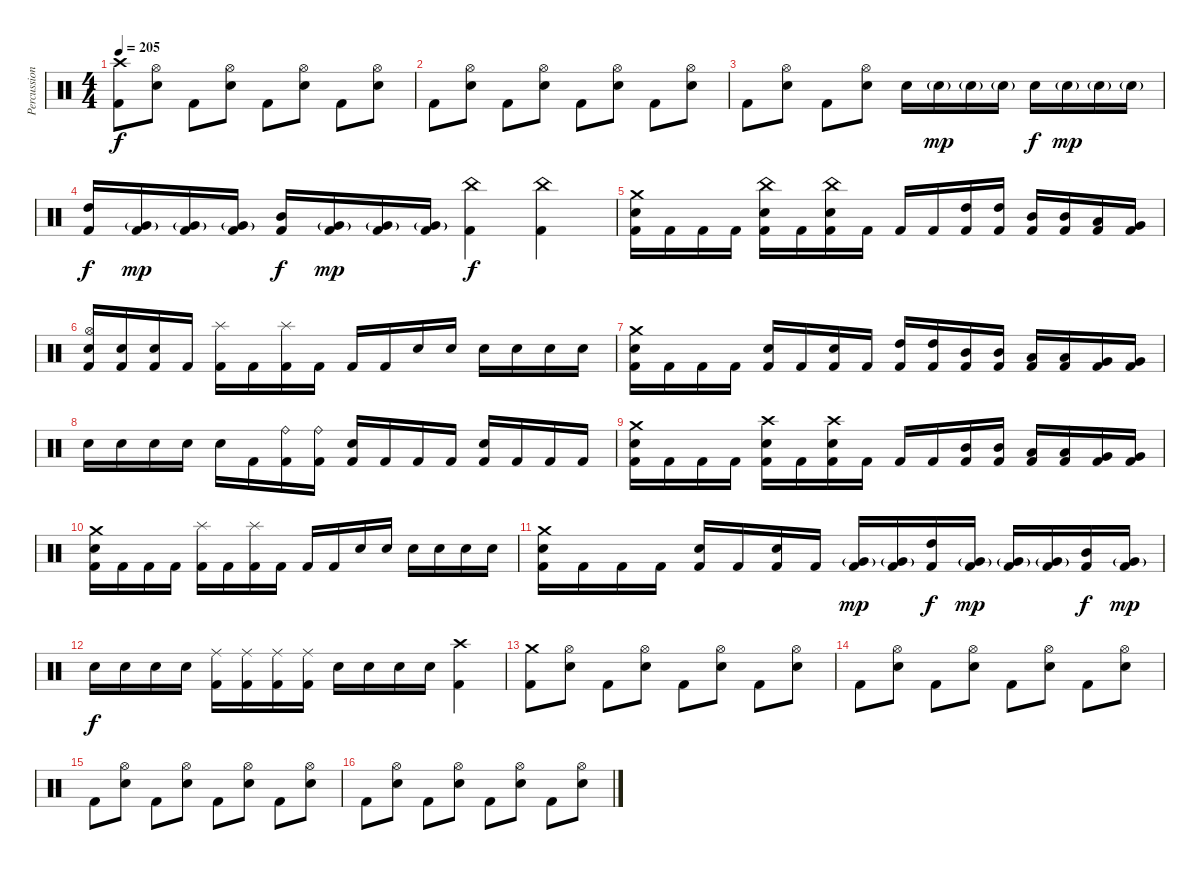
\track ("Percussions" "Percussion") {instrument percussion}
\staff {score}
\articulation defaults
\ts (4 4)
\tempo 205
\clef neutral
\ks c
("Crash high (hit)" "Kick (hit) 2").8{dy f} ("Hi-Hat (open)" "Electric Snare (hit)").8 "Kick (hit) 2".8 ("Hi-Hat (open)" "Electric Snare (hit)").8 "Kick (hit) 2".8 ("Hi-Hat (open)" "Electric Snare (hit)").8 "Kick (hit) 2".8 ("Hi-Hat (open)" "Electric Snare (hit)").8 |
"Kick (hit) 2".8 ("Hi-Hat (open)" "Electric Snare (hit)").8 "Kick (hit) 2".8 ("Hi-Hat (open)" "Electric Snare (hit)").8 "Kick (hit) 2".8 ("Hi-Hat (open)" "Electric Snare (hit)").8 "Kick (hit) 2".8 ("Hi-Hat (open)" "Electric Snare (hit)").8 |
"Kick (hit) 2".8 ("Hi-Hat (open)" "Electric Snare (hit)").8 "Kick (hit) 2".8 ("Hi-Hat (open)" "Electric Snare (hit)").8 "Electric Snare (hit)".16 "Electric Snare (hit)"{g}.16{dy mp} "Electric Snare (hit)"{g}.16 "Electric Snare (hit)"{g}.16 "Electric Snare (hit)".16{dy f} "Electric Snare (hit)"{g}.16{dy mp} "Electric Snare (hit)"{g}.16 "Electric Snare (hit)"{g}.16 |
("High Tom (hit)" "Kick (hit) 2").16{dy f} ("Very Low Tom (hit)"{g} "Kick (hit) 2").16{dy mp} ("Very Low Tom (hit)"{g} "Kick (hit) 2").16 ("Very Low Tom (hit)"{g} "Kick (hit) 2").16 ("Mid Tom (hit)" "Kick (hit) 2").16{dy f} ("Very Low Tom (hit)"{g} "Kick (hit) 2").16{dy mp} ("Very Low Tom (hit)"{g} "Kick (hit) 2").16 ("Very Low Tom (hit)"{g} "Kick (hit) 2").16 ("China (hit)" "Kick (hit) 2").4{dy f} ("China (hit)" "Kick (hit) 2").4 |
("Crash medium (hit)" "Electric Snare (hit)" "Kick (hit) 2").16 "Kick (hit) 2".16 "Kick (hit) 2".16 "Kick (hit) 2".16 ("China (hit)" "Electric Snare (hit)" "Kick (hit) 2").16 "Kick (hit) 2".16 ("China (hit)" "Electric Snare (hit)" "Kick (hit) 2").16 "Kick (hit) 2".16 "Kick (hit) 2".16 "Kick (hit) 2".16 ("High Tom (hit)" "Kick (hit) 2").16 ("High Tom (hit)" "Kick (hit) 2").16 ("Mid Tom (hit)" "Kick (hit) 2").16 ("Mid Tom (hit)" "Kick (hit) 2").16 ("Low Tom (hit)" "Kick (hit) 2").16 ("Very Low Tom (hit)" "Kick (hit) 2").16 |
("Hi-Hat (open)" "Electric Snare (hit)" "Kick (hit) 2").16 ("Electric Snare (hit)" "Kick (hit) 2").16 ("Electric Snare (hit)" "Kick (hit) 2").16 "Kick (hit) 2".16 ("Splash (hit)" "Kick (hit) 2").16 "Kick (hit) 2".16 ("Splash (hit)" "Kick (hit) 2").16 "Kick (hit) 2".16 "Kick (hit) 2".16 "Kick (hit) 2".16 "Electric Snare (hit)".16 "Electric Snare (hit)".16 "Electric Snare (hit)".16 "Electric Snare (hit)".16 "Electric Snare (hit)".16 "Electric Snare (hit)".16 |
("Crash medium (hit)" "Electric Snare (hit)" "Kick (hit) 2").16 "Kick (hit) 2".16 "Kick (hit) 2".16 "Kick (hit) 2".16 ("Electric Snare (hit)" "Kick (hit) 2").16 "Kick (hit) 2".16 ("Electric Snare (hit)" "Kick (hit) 2").16 "Kick (hit) 2".16 ("High Tom (hit)" "Kick (hit) 2").16 ("High Tom (hit)" "Kick (hit) 2").16 ("Mid Tom (hit)" "Kick (hit) 2").16 ("Mid Tom (hit)" "Kick (hit) 2").16 ("Low Tom (hit)" "Kick (hit) 2").16 ("Low Tom (hit)" "Kick (hit) 2").16 ("Very Low Tom (hit)" "Kick (hit) 2").16 ("Very Low Tom (hit)" "Kick (hit) 2").16 |
"Electric Snare (hit)".16 "Electric Snare (hit)".16 "Electric Snare (hit)".16 "Electric Snare (hit)".16 "Electric Snare (hit)".16 "Kick (hit) 2".16 ("Ride (bell)" "Kick (hit) 2").16 ("Ride (bell)" "Kick (hit) 2").16 ("Electric Snare (hit)" "Kick (hit) 2").16 "Kick (hit) 2".16 "Kick (hit) 2".16 "Kick (hit) 2".16 ("Electric Snare (hit)" "Kick (hit) 2").16 "Kick (hit) 2".16 "Kick (hit) 2".16 "Kick (hit) 2".16 |
("Crash medium (hit)" "Electric Snare (hit)" "Kick (hit) 2").16 "Kick (hit) 2".16 "Kick (hit) 2".16 "Kick (hit) 2".16 ("Crash high (hit)" "Electric Snare (hit)" "Kick (hit) 2").16 "Kick (hit) 2".16 ("Crash high (hit)" "Electric Snare (hit)" "Kick (hit) 2").16 "Kick (hit) 2".16 "Kick (hit) 2".16 "Kick (hit) 2".16 ("Mid Tom (hit)" "Kick (hit) 2").16 ("Mid Tom (hit)" "Kick (hit) 2").16 ("Low Tom (hit)" "Kick (hit) 2").16 ("Low Tom (hit)" "Kick (hit) 2").16 ("Very Low Tom (hit)" "Kick (hit) 2").16 ("Very Low Tom (hit)" "Kick (hit) 2").16 |
("Crash medium (hit)" "Electric Snare (hit)" "Kick (hit) 2").16 "Kick (hit) 2".16 "Kick (hit) 2".16 "Kick (hit) 2".16 ("Splash (hit)" "Kick (hit) 2").16 "Kick (hit) 2".16 ("Splash (hit)" "Kick (hit) 2").16 "Kick (hit) 2".16 "Kick (hit) 2".16 "Kick (hit) 2".16 "Electric Snare (hit)".16 "Electric Snare (hit)".16 "Electric Snare (hit)".16 "Electric Snare (hit)".16 "Electric Snare (hit)".16 "Electric Snare (hit)".16 |
("Crash medium (hit)" "Electric Snare (hit)" "Kick (hit) 2").16 "Kick (hit) 2".16 "Kick (hit) 2".16 "Kick (hit) 2".16 ("Electric Snare (hit)" "Kick (hit) 2").16 "Kick (hit) 2".16 ("Electric Snare (hit)" "Kick (hit) 2").16 "Kick (hit) 2".16 ("Very Low Tom (hit)"{g} "Kick (hit) 2").16{dy mp} ("Very Low Tom (hit)"{g} "Kick (hit) 2").16 ("High Tom (hit)" "Kick (hit) 2").16{dy f} ("Very Low Tom (hit)"{g} "Kick (hit) 2").16{dy mp} ("Very Low Tom (hit)"{g} "Kick (hit) 2").16 ("Very Low Tom (hit)"{g} "Kick (hit) 2").16 ("Mid Tom (hit)" "Kick (hit) 2").16{dy f} ("Very Low Tom (hit)"{g} "Kick (hit) 2").16{dy mp} |
"Electric Snare (hit)".16{dy f} "Electric Snare (hit)".16 "Electric Snare (hit)".16 "Electric Snare (hit)".16 ("Ride (middle)" "Kick (hit) 2").16 ("Ride (middle)" "Kick (hit) 2").16 ("Ride (middle)" "Kick (hit) 2").16 ("Ride (middle)" "Kick (hit) 2").16 "Electric Snare (hit)".16 "Electric Snare (hit)".16 "Electric Snare (hit)".16 "Electric Snare (hit)".16 ("Crash high (hit)" "Kick (hit) 2").4 |
("Crash medium (hit)" "Kick (hit) 2").8 ("Hi-Hat (open)" "Electric Snare (hit)").8 "Kick (hit) 2".8 ("Hi-Hat (open)" "Electric Snare (hit)").8 "Kick (hit) 2".8 ("Hi-Hat (open)" "Electric Snare (hit)").8 "Kick (hit) 2".8 ("Hi-Hat (open)" "Electric Snare (hit)").8 |
"Kick (hit) 2".8 ("Hi-Hat (open)" "Electric Snare (hit)").8 "Kick (hit) 2".8 ("Hi-Hat (open)" "Electric Snare (hit)").8 "Kick (hit) 2".8 ("Hi-Hat (open)" "Electric Snare (hit)").8 "Kick (hit) 2".8 ("Hi-Hat (open)" "Electric Snare (hit)").8 |
"Kick (hit) 2".8 ("Hi-Hat (open)" "Electric Snare (hit)").8 "Kick (hit) 2".8 ("Hi-Hat (open)" "Electric Snare (hit)").8 "Kick (hit) 2".8 ("Hi-Hat (open)" "Electric Snare (hit)").8 "Kick (hit) 2".8 ("Hi-Hat (open)" "Electric Snare (hit)").8 |
"Kick (hit) 2".8 ("Hi-Hat (open)" "Electric Snare (hit)").8 "Kick (hit) 2".8 ("Hi-Hat (open)" "Electric Snare (hit)").8 "Kick (hit) 2".8 ("Hi-Hat (open)" "Electric Snare (hit)").8 "Kick (hit) 2".8 ("Hi-Hat (open)" "Electric Snare (hit)").8
